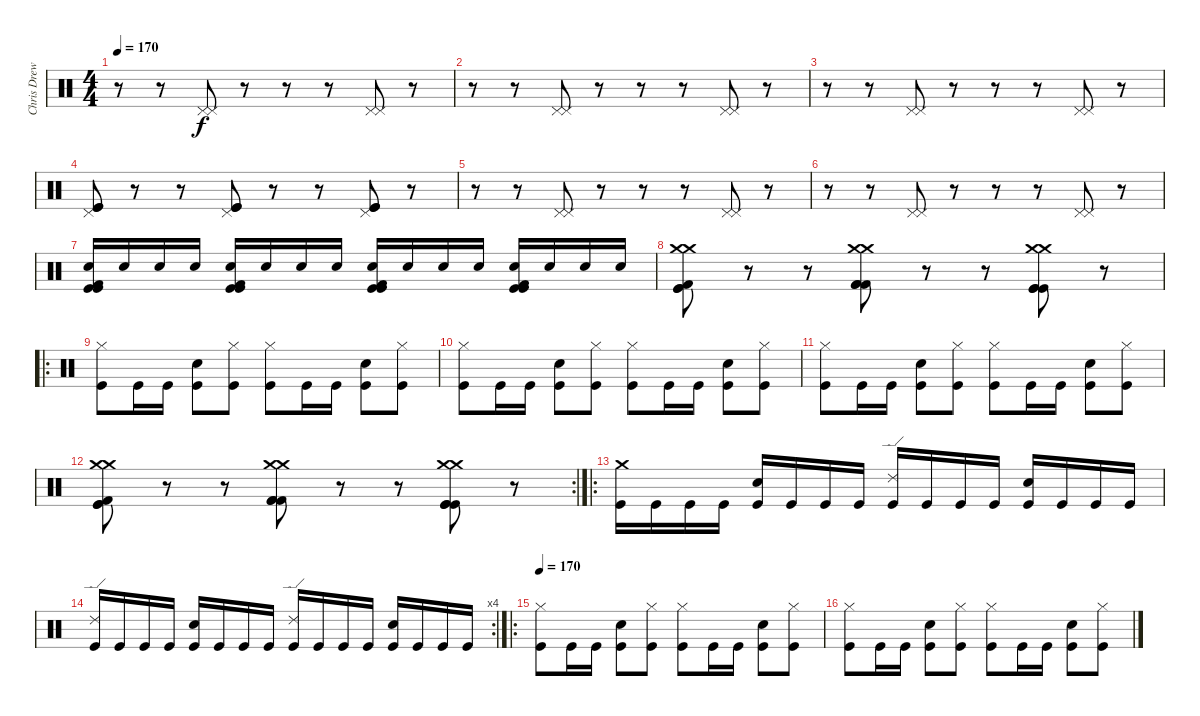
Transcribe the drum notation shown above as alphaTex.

\track ("Chris Drews- Drums" "Chris Drew") {instrument percussion}
\staff {score}
\articulation defaults
\ts (4 4)
\tempo 170
\clef neutral
\ks c
r.8{dy f} r.8 ("Pedal Hi-Hat (hit)" "Pedal Hi-Hat (hit)").8 r.8 r.8 r.8 ("Pedal Hi-Hat (hit)" "Pedal Hi-Hat (hit)").8 r.8 |
r.8 r.8 ("Pedal Hi-Hat (hit)" "Pedal Hi-Hat (hit)").8 r.8 r.8 r.8 ("Pedal Hi-Hat (hit)" "Pedal Hi-Hat (hit)").8 r.8 |
r.8 r.8 ("Pedal Hi-Hat (hit)" "Pedal Hi-Hat (hit)").8 r.8 r.8 r.8 ("Pedal Hi-Hat (hit)" "Pedal Hi-Hat (hit)").8 r.8 |
("Kick (hit)" "Kick (hit)" "Pedal Hi-Hat (hit)").8{balance 0} r.8 r.8 ("Kick (hit)" "Kick (hit)" "Pedal Hi-Hat (hit)").8{balance 16} r.8 r.8 ("Kick (hit)" "Kick (hit)" "Pedal Hi-Hat (hit)").8{balance 0} r.8 |
r.8{balance 8} r.8 ("Pedal Hi-Hat (hit)" "Pedal Hi-Hat (hit)").8 r.8 r.8 r.8 ("Pedal Hi-Hat (hit)" "Pedal Hi-Hat (hit)").8 r.8 |
r.8 r.8 ("Pedal Hi-Hat (hit)" "Pedal Hi-Hat (hit)").8 r.8 r.8 r.8 ("Pedal Hi-Hat (hit)" "Pedal Hi-Hat (hit)").8 r.8 |
("Kick (hit)" "Kick (hit)" "Kick (hit) 2" "Snare (hit) 2").16 "Snare (hit) 2".16 "Snare (hit) 2".16 "Snare (hit) 2".16 ("Kick (hit)" "Kick (hit)" "Kick (hit) 2" "Snare (hit) 2").16 "Snare (hit) 2".16 "Snare (hit) 2".16 "Snare (hit) 2".16 ("Kick (hit)" "Kick (hit)" "Kick (hit) 2" "Snare (hit) 2").16 "Snare (hit) 2".16 "Snare (hit) 2".16 "Snare (hit) 2".16 ("Kick (hit)" "Kick (hit)" "Kick (hit) 2" "Snare (hit) 2").16 "Snare (hit) 2".16 "Snare (hit) 2".16 "Snare (hit) 2".16 |
("Kick (hit)" "Kick (hit)" "Kick (hit) 2" "Crash medium (hit)" "Crash medium (hit)").8{balance 0} r.8 r.8 ("Kick (hit) 2" "Kick (hit) 2" "Kick (hit) 2" "Crash medium (hit)" "Crash medium (hit)").8{balance 16} r.8 r.8 ("Kick (hit)" "Kick (hit)" "Kick (hit)" "Crash medium (hit)" "Crash medium (hit)").8{balance 0} r.8 |
\ro
("Kick (hit)" "Hi-Hat (closed)").8{balance 8} "Kick (hit)".16 "Kick (hit)".16 ("Kick (hit)" "Snare (hit) 2").8 ("Kick (hit)" "Hi-Hat (closed)").8 ("Kick (hit)" "Hi-Hat (closed)").8 "Kick (hit)".16 "Kick (hit)".16 ("Kick (hit)" "Snare (hit) 2").8 ("Kick (hit)" "Hi-Hat (closed)").8 |
("Kick (hit)" "Hi-Hat (closed)").8 "Kick (hit)".16 "Kick (hit)".16 ("Kick (hit)" "Snare (hit) 2").8 ("Kick (hit)" "Hi-Hat (closed)").8 ("Kick (hit)" "Hi-Hat (closed)").8 "Kick (hit)".16 "Kick (hit)".16 ("Kick (hit)" "Snare (hit) 2").8 ("Kick (hit)" "Hi-Hat (closed)").8 |
("Kick (hit)" "Hi-Hat (closed)").8 "Kick (hit)".16 "Kick (hit)".16 ("Kick (hit)" "Snare (hit) 2").8 ("Kick (hit)" "Hi-Hat (closed)").8 ("Kick (hit)" "Hi-Hat (closed)").8 "Kick (hit)".16 "Kick (hit)".16 ("Kick (hit)" "Snare (hit) 2").8 ("Kick (hit)" "Hi-Hat (closed)").8 |
\rc 2
("Kick (hit)" "Kick (hit)" "Kick (hit) 2" "Crash medium (hit)" "Crash medium (hit)").8{balance 0} r.8 r.8 ("Kick (hit) 2" "Kick (hit) 2" "Kick (hit) 2" "Crash medium (hit)" "Crash medium (hit)").8{balance 16} r.8 r.8 ("Kick (hit)" "Kick (hit)" "Kick (hit)" "Crash medium (hit)" "Crash medium (hit)").8{balance 0} r.8 |
\ro
("Kick (hit)" "Crash medium (hit)").16{balance 8} "Kick (hit)".16 "Kick (hit)".16 "Kick (hit)".16 ("Kick (hit)" "Snare (hit) 2").16 "Kick (hit)".16 "Kick (hit)".16 "Kick (hit)".16 ("Kick (hit)" "Ride (edge) 2").16 "Kick (hit)".16 "Kick (hit)".16 "Kick (hit)".16 ("Kick (hit)" "Snare (hit) 2").16 "Kick (hit)".16 "Kick (hit)".16 "Kick (hit)".16 |
\rc 4
("Kick (hit)" "Ride (edge) 2").16 "Kick (hit)".16 "Kick (hit)".16 "Kick (hit)".16 ("Kick (hit)" "Snare (hit) 2").16 "Kick (hit)".16 "Kick (hit)".16 "Kick (hit)".16 ("Kick (hit)" "Ride (edge) 2").16 "Kick (hit)".16 "Kick (hit)".16 "Kick (hit)".16 ("Kick (hit)" "Snare (hit) 2").16 "Kick (hit)".16 "Kick (hit)".16 "Kick (hit)".16 |
\ro
\tempo 170
("Kick (hit)" "Hi-Hat (closed)").8{balance 8} "Kick (hit)".16 "Kick (hit)".16 ("Kick (hit)" "Snare (hit) 2").8 ("Kick (hit)" "Hi-Hat (closed)").8 ("Kick (hit)" "Hi-Hat (closed)").8 "Kick (hit)".16 "Kick (hit)".16 ("Kick (hit)" "Snare (hit) 2").8 ("Kick (hit)" "Hi-Hat (closed)").8 |
("Kick (hit)" "Hi-Hat (closed)").8 "Kick (hit)".16 "Kick (hit)".16 ("Kick (hit)" "Snare (hit) 2").8 ("Kick (hit)" "Hi-Hat (closed)").8 ("Kick (hit)" "Hi-Hat (closed)").8 "Kick (hit)".16 "Kick (hit)".16 ("Kick (hit)" "Snare (hit) 2").8 ("Kick (hit)" "Hi-Hat (closed)").8
